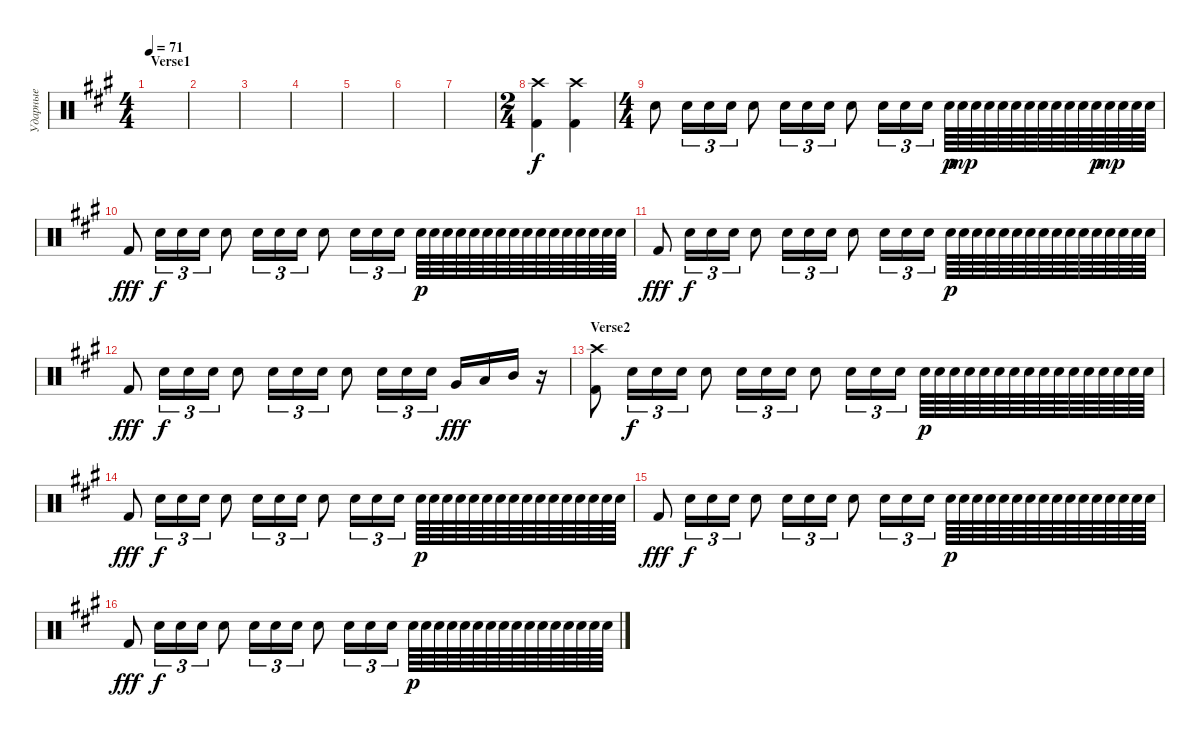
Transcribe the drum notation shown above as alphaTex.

\track ("Ударные" "Ударные") {instrument percussion}
\staff {score}
\articulation defaults
\ts (4 4)
\section ("" "Verse1")
\tempo 71
\clef neutral
\ks f#minor
|
|
|
|
|
|
|
\ts (2 4)
("Crash high (hit)" "Kick (hit) 2").4 ("Crash high (hit)" "Kick (hit) 2").4 |
\ts (4 4)
"Electric Snare (hit)".8{dy f} "Electric Snare (hit)".16{tu (3 2)} "Electric Snare (hit)".16{tu (3 2)} "Electric Snare (hit)".16{tu (3 2)} "Electric Snare (hit)".8 "Electric Snare (hit)".16{tu (3 2)} "Electric Snare (hit)".16{tu (3 2)} "Electric Snare (hit)".16{tu (3 2)} "Electric Snare (hit)".8 "Electric Snare (hit)".16{tu (3 2)} "Electric Snare (hit)".16{tu (3 2)} "Electric Snare (hit)".16{tu (3 2)} "Electric Snare (hit)".64{dy p} "Electric Snare (hit)".64{dy mp} "Electric Snare (hit)".64 "Electric Snare (hit)".64 "Electric Snare (hit)".64 "Electric Snare (hit)".64 "Electric Snare (hit)".64 "Electric Snare (hit)".64 "Electric Snare (hit)".64 "Electric Snare (hit)".64 "Electric Snare (hit)".64 "Electric Snare (hit)".64{dy p} "Electric Snare (hit)".64{dy mp} "Electric Snare (hit)".64 "Electric Snare (hit)".64 "Electric Snare (hit)".64 |
"Kick (hit) 2".8{dy fff} "Electric Snare (hit)".16{tu (3 2) dy f} "Electric Snare (hit)".16{tu (3 2)} "Electric Snare (hit)".16{tu (3 2)} "Electric Snare (hit)".8 "Electric Snare (hit)".16{tu (3 2)} "Electric Snare (hit)".16{tu (3 2)} "Electric Snare (hit)".16{tu (3 2)} "Electric Snare (hit)".8 "Electric Snare (hit)".16{tu (3 2)} "Electric Snare (hit)".16{tu (3 2)} "Electric Snare (hit)".16{tu (3 2)} "Electric Snare (hit)".64{dy p} "Electric Snare (hit)".64 "Electric Snare (hit)".64 "Electric Snare (hit)".64 "Electric Snare (hit)".64 "Electric Snare (hit)".64 "Electric Snare (hit)".64 "Electric Snare (hit)".64 "Electric Snare (hit)".64 "Electric Snare (hit)".64 "Electric Snare (hit)".64 "Electric Snare (hit)".64 "Electric Snare (hit)".64 "Electric Snare (hit)".64 "Electric Snare (hit)".64 "Electric Snare (hit)".64 |
"Kick (hit) 2".8{dy fff} "Electric Snare (hit)".16{tu (3 2) dy f} "Electric Snare (hit)".16{tu (3 2)} "Electric Snare (hit)".16{tu (3 2)} "Electric Snare (hit)".8 "Electric Snare (hit)".16{tu (3 2)} "Electric Snare (hit)".16{tu (3 2)} "Electric Snare (hit)".16{tu (3 2)} "Electric Snare (hit)".8 "Electric Snare (hit)".16{tu (3 2)} "Electric Snare (hit)".16{tu (3 2)} "Electric Snare (hit)".16{tu (3 2)} "Electric Snare (hit)".64{dy p} "Electric Snare (hit)".64 "Electric Snare (hit)".64 "Electric Snare (hit)".64 "Electric Snare (hit)".64 "Electric Snare (hit)".64 "Electric Snare (hit)".64 "Electric Snare (hit)".64 "Electric Snare (hit)".64 "Electric Snare (hit)".64 "Electric Snare (hit)".64 "Electric Snare (hit)".64 "Electric Snare (hit)".64 "Electric Snare (hit)".64 "Electric Snare (hit)".64 "Electric Snare (hit)".64 |
"Kick (hit) 2".8{dy fff} "Electric Snare (hit)".16{tu (3 2) dy f} "Electric Snare (hit)".16{tu (3 2)} "Electric Snare (hit)".16{tu (3 2)} "Electric Snare (hit)".8 "Electric Snare (hit)".16{tu (3 2)} "Electric Snare (hit)".16{tu (3 2)} "Electric Snare (hit)".16{tu (3 2)} "Electric Snare (hit)".8 "Electric Snare (hit)".16{tu (3 2)} "Electric Snare (hit)".16{tu (3 2)} "Electric Snare (hit)".16{tu (3 2)} "Very Low Tom (hit)".16{dy fff} "Low Tom (hit)".16 "Mid Tom (hit)".16 r.16 |
\section ("" "Verse2")
("Crash high (hit)" "Kick (hit) 2").8 "Electric Snare (hit)".16{tu (3 2) dy f} "Electric Snare (hit)".16{tu (3 2)} "Electric Snare (hit)".16{tu (3 2)} "Electric Snare (hit)".8 "Electric Snare (hit)".16{tu (3 2)} "Electric Snare (hit)".16{tu (3 2)} "Electric Snare (hit)".16{tu (3 2)} "Electric Snare (hit)".8 "Electric Snare (hit)".16{tu (3 2)} "Electric Snare (hit)".16{tu (3 2)} "Electric Snare (hit)".16{tu (3 2)} "Electric Snare (hit)".64{dy p} "Electric Snare (hit)".64 "Electric Snare (hit)".64 "Electric Snare (hit)".64 "Electric Snare (hit)".64 "Electric Snare (hit)".64 "Electric Snare (hit)".64 "Electric Snare (hit)".64 "Electric Snare (hit)".64 "Electric Snare (hit)".64 "Electric Snare (hit)".64 "Electric Snare (hit)".64 "Electric Snare (hit)".64 "Electric Snare (hit)".64 "Electric Snare (hit)".64 "Electric Snare (hit)".64 |
"Kick (hit) 2".8{dy fff} "Electric Snare (hit)".16{tu (3 2) dy f} "Electric Snare (hit)".16{tu (3 2)} "Electric Snare (hit)".16{tu (3 2)} "Electric Snare (hit)".8 "Electric Snare (hit)".16{tu (3 2)} "Electric Snare (hit)".16{tu (3 2)} "Electric Snare (hit)".16{tu (3 2)} "Electric Snare (hit)".8 "Electric Snare (hit)".16{tu (3 2)} "Electric Snare (hit)".16{tu (3 2)} "Electric Snare (hit)".16{tu (3 2)} "Electric Snare (hit)".64{dy p} "Electric Snare (hit)".64 "Electric Snare (hit)".64 "Electric Snare (hit)".64 "Electric Snare (hit)".64 "Electric Snare (hit)".64 "Electric Snare (hit)".64 "Electric Snare (hit)".64 "Electric Snare (hit)".64 "Electric Snare (hit)".64 "Electric Snare (hit)".64 "Electric Snare (hit)".64 "Electric Snare (hit)".64 "Electric Snare (hit)".64 "Electric Snare (hit)".64 "Electric Snare (hit)".64 |
"Kick (hit) 2".8{dy fff} "Electric Snare (hit)".16{tu (3 2) dy f} "Electric Snare (hit)".16{tu (3 2)} "Electric Snare (hit)".16{tu (3 2)} "Electric Snare (hit)".8 "Electric Snare (hit)".16{tu (3 2)} "Electric Snare (hit)".16{tu (3 2)} "Electric Snare (hit)".16{tu (3 2)} "Electric Snare (hit)".8 "Electric Snare (hit)".16{tu (3 2)} "Electric Snare (hit)".16{tu (3 2)} "Electric Snare (hit)".16{tu (3 2)} "Electric Snare (hit)".64{dy p} "Electric Snare (hit)".64 "Electric Snare (hit)".64 "Electric Snare (hit)".64 "Electric Snare (hit)".64 "Electric Snare (hit)".64 "Electric Snare (hit)".64 "Electric Snare (hit)".64 "Electric Snare (hit)".64 "Electric Snare (hit)".64 "Electric Snare (hit)".64 "Electric Snare (hit)".64 "Electric Snare (hit)".64 "Electric Snare (hit)".64 "Electric Snare (hit)".64 "Electric Snare (hit)".64 |
"Kick (hit) 2".8{dy fff} "Electric Snare (hit)".16{tu (3 2) dy f} "Electric Snare (hit)".16{tu (3 2)} "Electric Snare (hit)".16{tu (3 2)} "Electric Snare (hit)".8 "Electric Snare (hit)".16{tu (3 2)} "Electric Snare (hit)".16{tu (3 2)} "Electric Snare (hit)".16{tu (3 2)} "Electric Snare (hit)".8 "Electric Snare (hit)".16{tu (3 2)} "Electric Snare (hit)".16{tu (3 2)} "Electric Snare (hit)".16{tu (3 2)} "Electric Snare (hit)".64{dy p} "Electric Snare (hit)".64 "Electric Snare (hit)".64 "Electric Snare (hit)".64 "Electric Snare (hit)".64 "Electric Snare (hit)".64 "Electric Snare (hit)".64 "Electric Snare (hit)".64 "Electric Snare (hit)".64 "Electric Snare (hit)".64 "Electric Snare (hit)".64 "Electric Snare (hit)".64 "Electric Snare (hit)".64 "Electric Snare (hit)".64 "Electric Snare (hit)".64 "Electric Snare (hit)".64
